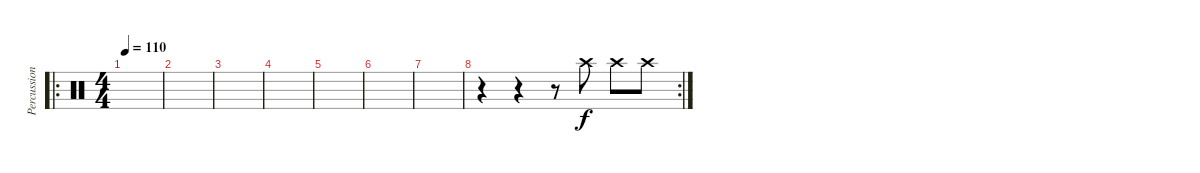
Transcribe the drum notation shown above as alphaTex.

\track ("Percussion 2" "Percussion") {instrument percussion}
\staff {score}
\articulation defaults
\ro
\ts (4 4)
\tempo 110
\clef neutral
\ks c
|
|
|
|
|
|
|
\rc 2
r.4 r.4 r.8 "Crash high (hit)".8 "Crash high (hit)".8 "Crash high (hit)".8
